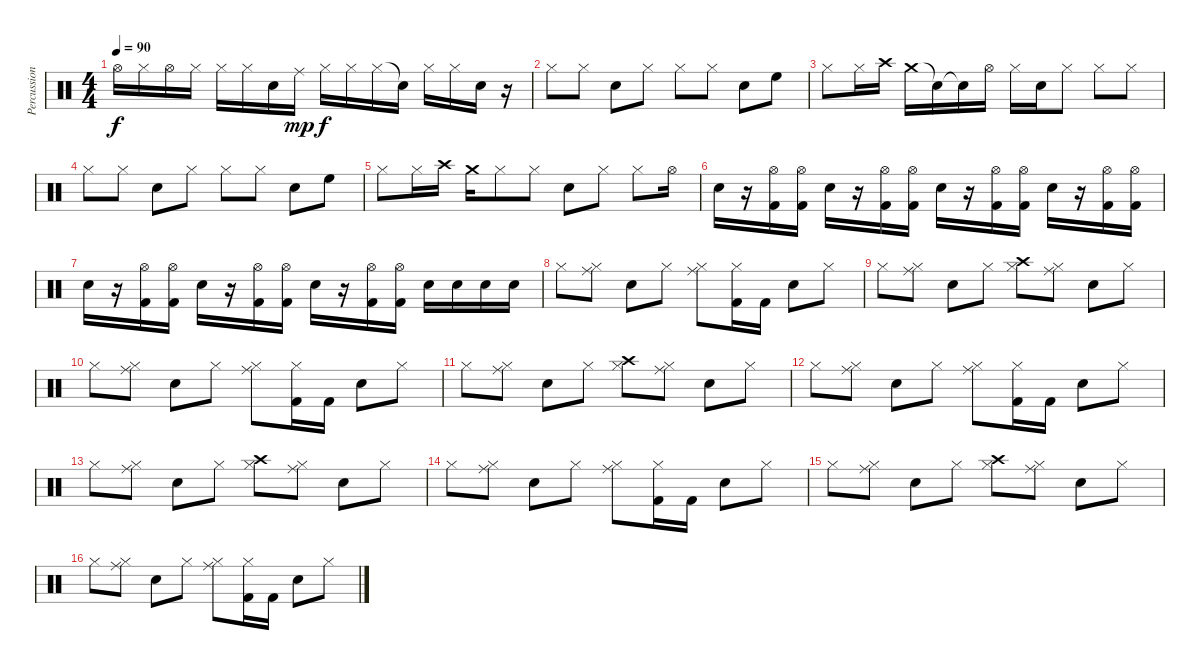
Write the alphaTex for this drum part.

\track ("Percussioni" "Percussion") {instrument percussion}
\staff {score}
\articulation defaults
\ts (4 4)
\tempo 90
\clef neutral
\ks c "Hi-Hat (open)".16{dy f} "Hi-Hat (closed)".16 "Hi-Hat (open)".16 "Hi-Hat (closed)".16 "Hi-Hat (closed)".16 "Hi-Hat (closed)".16 "Snare (hit) 2".16 "Ride (middle)".16{dy mp} "Hi-Hat (closed)".16{dy f} "Hi-Hat (closed)".16 "Hi-Hat (closed)".16 "Snare (hit)"{t}.16 "Hi-Hat (closed)".16 "Hi-Hat (closed)".16 "Snare (hit) 2".16
r.16 |
"Hi-Hat (closed)".8 "Hi-Hat (closed)".8 "Snare (hit) 2".8 "Hi-Hat (closed)".8 "Hi-Hat (closed)".8 "Hi-Hat (closed)".8 "Snare (hit) 2".8 "High Floor Tom (hit)".8 |
"Hi-Hat (closed)".8 "Hi-Hat (closed)".16 "Crash high (hit)".16 "Crash medium (hit)".16 "Snare (hit)"{t}.16 "Snare (hit)"{t}.16 "Hi-Hat (open)".16 "Hi-Hat (closed)".16 "Snare (hit) 2".16 "Hi-Hat (closed)".8 "Hi-Hat (closed)".8 "Hi-Hat (closed)".8 |
"Hi-Hat (closed)".8 "Hi-Hat (closed)".8 "Snare (hit) 2".8 "Hi-Hat (closed)".8 "Hi-Hat (closed)".8 "Hi-Hat (closed)".8 "Snare (hit) 2".8 "High Floor Tom (hit)".8 |
"Hi-Hat (closed)".8 "Hi-Hat (closed)".16 "Crash high (hit)".16 "Crash medium (hit)".16 "Hi-Hat (closed)".8 "Hi-Hat (closed)".8 "Snare (hit) 2".8 "Hi-Hat (closed)".8 "Hi-Hat (closed)".8 "Hi-Hat (open)".16 |
"Snare (hit) 2".16 r.16 ("Hi-Hat (open)" "Kick (hit) 2").16 ("Hi-Hat (open)" "Kick (hit) 2").16 "Snare (hit) 2".16 r.16 ("Hi-Hat (open)" "Kick (hit) 2").16 ("Hi-Hat (open)" "Kick (hit) 2").16 "Snare (hit) 2".16 r.16 ("Hi-Hat (open)" "Kick (hit) 2").16 ("Hi-Hat (open)" "Kick (hit) 2").16 "Snare (hit) 2".16 r.16 ("Hi-Hat (open)" "Kick (hit) 2").16 ("Hi-Hat (open)" "Kick (hit) 2").16 |
"Snare (hit) 2".16 r.16 ("Hi-Hat (open)" "Kick (hit) 2").16 ("Hi-Hat (open)" "Kick (hit) 2").16 "Snare (hit) 2".16 r.16 ("Hi-Hat (open)" "Kick (hit) 2").16 ("Hi-Hat (open)" "Kick (hit) 2").16 "Snare (hit) 2".16 r.16 ("Hi-Hat (open)" "Kick (hit) 2").16 ("Hi-Hat (open)" "Kick (hit) 2").16 "Snare (hit) 2".16 "Snare (hit) 2".16 "Snare (hit) 2".16 "Snare (hit) 2".16 |
"Hi-Hat (closed)".8 ("Ride (middle)" "Hi-Hat (closed)").8 "Snare (hit) 2".8 "Hi-Hat (closed)".8 ("Ride (middle)" "Hi-Hat (closed)").8 ("Hi-Hat (closed)" "Kick (hit) 2").16 "Kick (hit) 2".16 "Snare (hit) 2".8 "Hi-Hat (closed)".8 |
"Hi-Hat (closed)".8 ("Ride (middle)" "Hi-Hat (closed)").8 "Snare (hit) 2".8 "Hi-Hat (closed)".8 ("Crash high (hit)" "Hi-Hat (closed)").8 ("Ride (middle)" "Hi-Hat (closed)").8 "Snare (hit) 2".8 "Hi-Hat (closed)".8 |
"Hi-Hat (closed)".8 ("Ride (middle)" "Hi-Hat (closed)").8 "Snare (hit) 2".8 "Hi-Hat (closed)".8 ("Ride (middle)" "Hi-Hat (closed)").8 ("Hi-Hat (closed)" "Kick (hit) 2").16 "Kick (hit) 2".16 "Snare (hit) 2".8 "Hi-Hat (closed)".8 |
"Hi-Hat (closed)".8 ("Ride (middle)" "Hi-Hat (closed)").8 "Snare (hit) 2".8 "Hi-Hat (closed)".8 ("Crash high (hit)" "Hi-Hat (closed)").8 ("Ride (middle)" "Hi-Hat (closed)").8 "Snare (hit) 2".8 "Hi-Hat (closed)".8 |
"Hi-Hat (closed)".8 ("Ride (middle)" "Hi-Hat (closed)").8 "Snare (hit) 2".8 "Hi-Hat (closed)".8 ("Ride (middle)" "Hi-Hat (closed)").8 ("Hi-Hat (closed)" "Kick (hit) 2").16 "Kick (hit) 2".16 "Snare (hit) 2".8 "Hi-Hat (closed)".8 |
"Hi-Hat (closed)".8 ("Ride (middle)" "Hi-Hat (closed)").8 "Snare (hit) 2".8 "Hi-Hat (closed)".8 ("Crash high (hit)" "Hi-Hat (closed)").8 ("Ride (middle)" "Hi-Hat (closed)").8 "Snare (hit) 2".8 "Hi-Hat (closed)".8 |
"Hi-Hat (closed)".8 ("Ride (middle)" "Hi-Hat (closed)").8 "Snare (hit) 2".8 "Hi-Hat (closed)".8 ("Ride (middle)" "Hi-Hat (closed)").8 ("Hi-Hat (closed)" "Kick (hit) 2").16 "Kick (hit) 2".16 "Snare (hit) 2".8 "Hi-Hat (closed)".8 |
"Hi-Hat (closed)".8 ("Ride (middle)" "Hi-Hat (closed)").8 "Snare (hit) 2".8 "Hi-Hat (closed)".8 ("Crash high (hit)" "Hi-Hat (closed)").8 ("Ride (middle)" "Hi-Hat (closed)").8 "Snare (hit) 2".8 "Hi-Hat (closed)".8 |
"Hi-Hat (closed)".8 ("Ride (middle)" "Hi-Hat (closed)").8 "Snare (hit) 2".8 "Hi-Hat (closed)".8 ("Ride (middle)" "Hi-Hat (closed)").8 ("Hi-Hat (closed)" "Kick (hit) 2").16 "Kick (hit) 2".16 "Snare (hit) 2".8 "Hi-Hat (closed)".8
